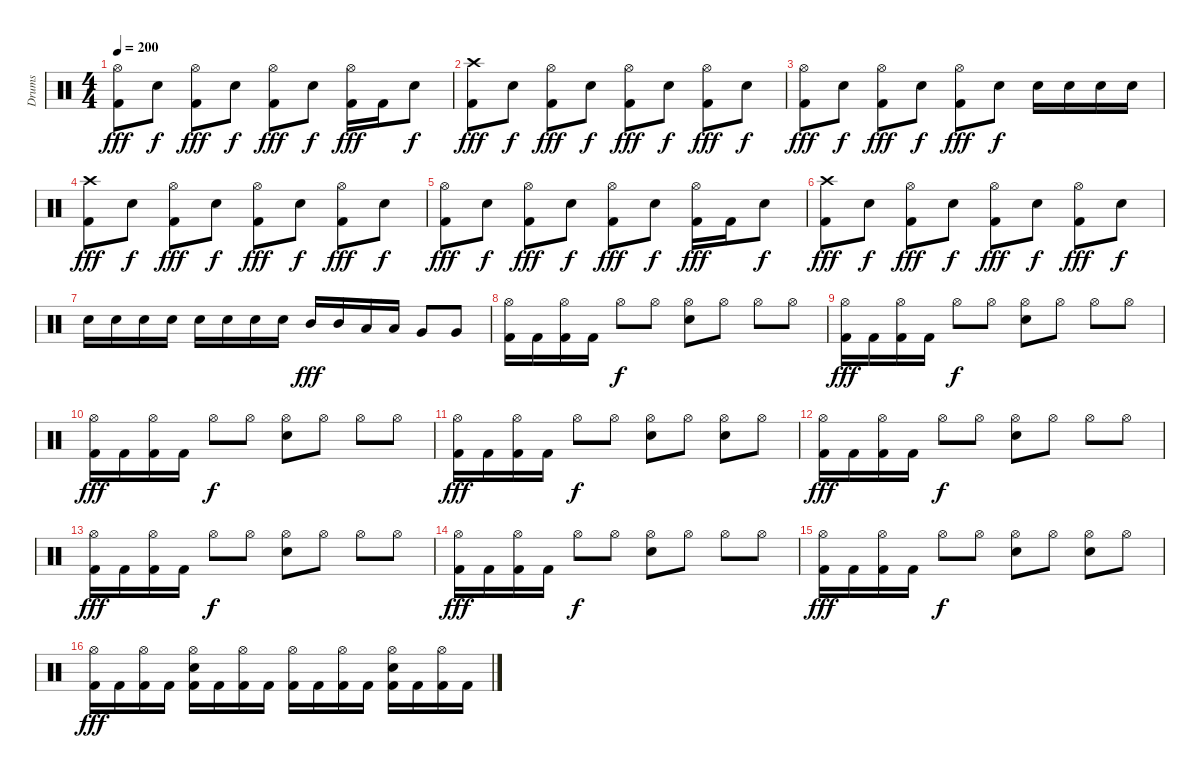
\track ("Drums" "Drums") {instrument percussion}
\staff {score}
\articulation defaults
\ts (4 4)
\tempo 200
\clef neutral
\ks c
("Hi-Hat (open)" "Kick (hit) 2").8{dy fff} "Electric Snare (hit)".8{dy f} ("Hi-Hat (open)" "Kick (hit) 2").8{dy fff} "Electric Snare (hit)".8{dy f} ("Hi-Hat (open)" "Kick (hit) 2").8{dy fff} "Electric Snare (hit)".8{dy f} ("Hi-Hat (open)" "Kick (hit) 2").16{dy fff} "Kick (hit) 2".16 "Electric Snare (hit)".8{dy f} |
("Crash high (hit)" "Kick (hit) 2").8{dy fff} "Electric Snare (hit)".8{dy f} ("Hi-Hat (open)" "Kick (hit) 2").8{dy fff} "Electric Snare (hit)".8{dy f} ("Hi-Hat (open)" "Kick (hit) 2").8{dy fff} "Electric Snare (hit)".8{dy f} ("Hi-Hat (open)" "Kick (hit) 2").8{dy fff} "Electric Snare (hit)".8{dy f} |
("Hi-Hat (open)" "Kick (hit) 2").8{dy fff} "Electric Snare (hit)".8{dy f} ("Hi-Hat (open)" "Kick (hit) 2").8{dy fff} "Electric Snare (hit)".8{dy f} ("Hi-Hat (open)" "Kick (hit) 2").8{dy fff} "Electric Snare (hit)".8{dy f} "Electric Snare (hit)".16 "Electric Snare (hit)".16 "Electric Snare (hit)".16 "Electric Snare (hit)".16 |
("Crash high (hit)" "Kick (hit) 2").8{dy fff} "Electric Snare (hit)".8{dy f} ("Hi-Hat (open)" "Kick (hit) 2").8{dy fff} "Electric Snare (hit)".8{dy f} ("Hi-Hat (open)" "Kick (hit) 2").8{dy fff} "Electric Snare (hit)".8{dy f} ("Hi-Hat (open)" "Kick (hit) 2").8{dy fff} "Electric Snare (hit)".8{dy f} |
("Hi-Hat (open)" "Kick (hit) 2").8{dy fff} "Electric Snare (hit)".8{dy f} ("Hi-Hat (open)" "Kick (hit) 2").8{dy fff} "Electric Snare (hit)".8{dy f} ("Hi-Hat (open)" "Kick (hit) 2").8{dy fff} "Electric Snare (hit)".8{dy f} ("Hi-Hat (open)" "Kick (hit) 2").16{dy fff} "Kick (hit) 2".16 "Electric Snare (hit)".8{dy f} |
("Crash high (hit)" "Kick (hit) 2").8{dy fff} "Electric Snare (hit)".8{dy f} ("Hi-Hat (open)" "Kick (hit) 2").8{dy fff} "Electric Snare (hit)".8{dy f} ("Hi-Hat (open)" "Kick (hit) 2").8{dy fff} "Electric Snare (hit)".8{dy f} ("Hi-Hat (open)" "Kick (hit) 2").8{dy fff} "Electric Snare (hit)".8{dy f} |
"Electric Snare (hit)".16 "Electric Snare (hit)".16 "Electric Snare (hit)".16 "Electric Snare (hit)".16 "Electric Snare (hit)".16 "Electric Snare (hit)".16 "Electric Snare (hit)".16 "Electric Snare (hit)".16 "Mid Tom (hit)".16{dy fff} "Mid Tom (hit)".16 "Low Tom (hit)".16 "Low Tom (hit)".16 "Very Low Tom (hit)".8 "Very Low Tom (hit)".8 |
("Hi-Hat (open)" "Kick (hit) 2").16 "Kick (hit) 2".16 ("Hi-Hat (open)" "Kick (hit) 2").16 "Kick (hit) 2".16 "Hi-Hat (open)".8{dy f} "Hi-Hat (open)".8 ("Hi-Hat (open)" "Electric Snare (hit)").8 "Hi-Hat (open)".8 "Hi-Hat (open)".8 "Hi-Hat (open)".8 |
("Hi-Hat (open)" "Kick (hit) 2").16{dy fff} "Kick (hit) 2".16 ("Hi-Hat (open)" "Kick (hit) 2").16 "Kick (hit) 2".16 "Hi-Hat (open)".8{dy f} "Hi-Hat (open)".8 ("Hi-Hat (open)" "Electric Snare (hit)").8 "Hi-Hat (open)".8 "Hi-Hat (open)".8 "Hi-Hat (open)".8 |
("Hi-Hat (open)" "Kick (hit) 2").16{dy fff} "Kick (hit) 2".16 ("Hi-Hat (open)" "Kick (hit) 2").16 "Kick (hit) 2".16 "Hi-Hat (open)".8{dy f} "Hi-Hat (open)".8 ("Hi-Hat (open)" "Electric Snare (hit)").8 "Hi-Hat (open)".8 "Hi-Hat (open)".8 "Hi-Hat (open)".8 |
("Hi-Hat (open)" "Kick (hit) 2").16{dy fff} "Kick (hit) 2".16 ("Hi-Hat (open)" "Kick (hit) 2").16 "Kick (hit) 2".16 "Hi-Hat (open)".8{dy f} "Hi-Hat (open)".8 ("Hi-Hat (open)" "Electric Snare (hit)").8 "Hi-Hat (open)".8 ("Hi-Hat (open)" "Electric Snare (hit)").8 "Hi-Hat (open)".8 |
("Hi-Hat (open)" "Kick (hit) 2").16{dy fff} "Kick (hit) 2".16 ("Hi-Hat (open)" "Kick (hit) 2").16 "Kick (hit) 2".16 "Hi-Hat (open)".8{dy f} "Hi-Hat (open)".8 ("Hi-Hat (open)" "Electric Snare (hit)").8 "Hi-Hat (open)".8 "Hi-Hat (open)".8 "Hi-Hat (open)".8 |
("Hi-Hat (open)" "Kick (hit) 2").16{dy fff} "Kick (hit) 2".16 ("Hi-Hat (open)" "Kick (hit) 2").16 "Kick (hit) 2".16 "Hi-Hat (open)".8{dy f} "Hi-Hat (open)".8 ("Hi-Hat (open)" "Electric Snare (hit)").8 "Hi-Hat (open)".8 "Hi-Hat (open)".8 "Hi-Hat (open)".8 |
("Hi-Hat (open)" "Kick (hit) 2").16{dy fff} "Kick (hit) 2".16 ("Hi-Hat (open)" "Kick (hit) 2").16 "Kick (hit) 2".16 "Hi-Hat (open)".8{dy f} "Hi-Hat (open)".8 ("Hi-Hat (open)" "Electric Snare (hit)").8 "Hi-Hat (open)".8 "Hi-Hat (open)".8 "Hi-Hat (open)".8 |
("Hi-Hat (open)" "Kick (hit) 2").16{dy fff} "Kick (hit) 2".16 ("Hi-Hat (open)" "Kick (hit) 2").16 "Kick (hit) 2".16 "Hi-Hat (open)".8{dy f} "Hi-Hat (open)".8 ("Hi-Hat (open)" "Electric Snare (hit)").8 "Hi-Hat (open)".8 ("Hi-Hat (open)" "Electric Snare (hit)").8 "Hi-Hat (open)".8 |
("Hi-Hat (open)" "Kick (hit) 2").16{dy fff} "Kick (hit) 2".16 ("Hi-Hat (open)" "Kick (hit) 2").16 "Kick (hit) 2".16 ("Hi-Hat (open)" "Electric Snare (hit)" "Kick (hit) 2").16 "Kick (hit) 2".16 ("Hi-Hat (open)" "Kick (hit) 2").16 "Kick (hit) 2".16 ("Hi-Hat (open)" "Kick (hit) 2").16 "Kick (hit) 2".16 ("Hi-Hat (open)" "Kick (hit) 2").16 "Kick (hit) 2".16 ("Hi-Hat (open)" "Electric Snare (hit)" "Kick (hit) 2").16 "Kick (hit) 2".16 ("Hi-Hat (open)" "Kick (hit) 2").16 "Kick (hit) 2".16
